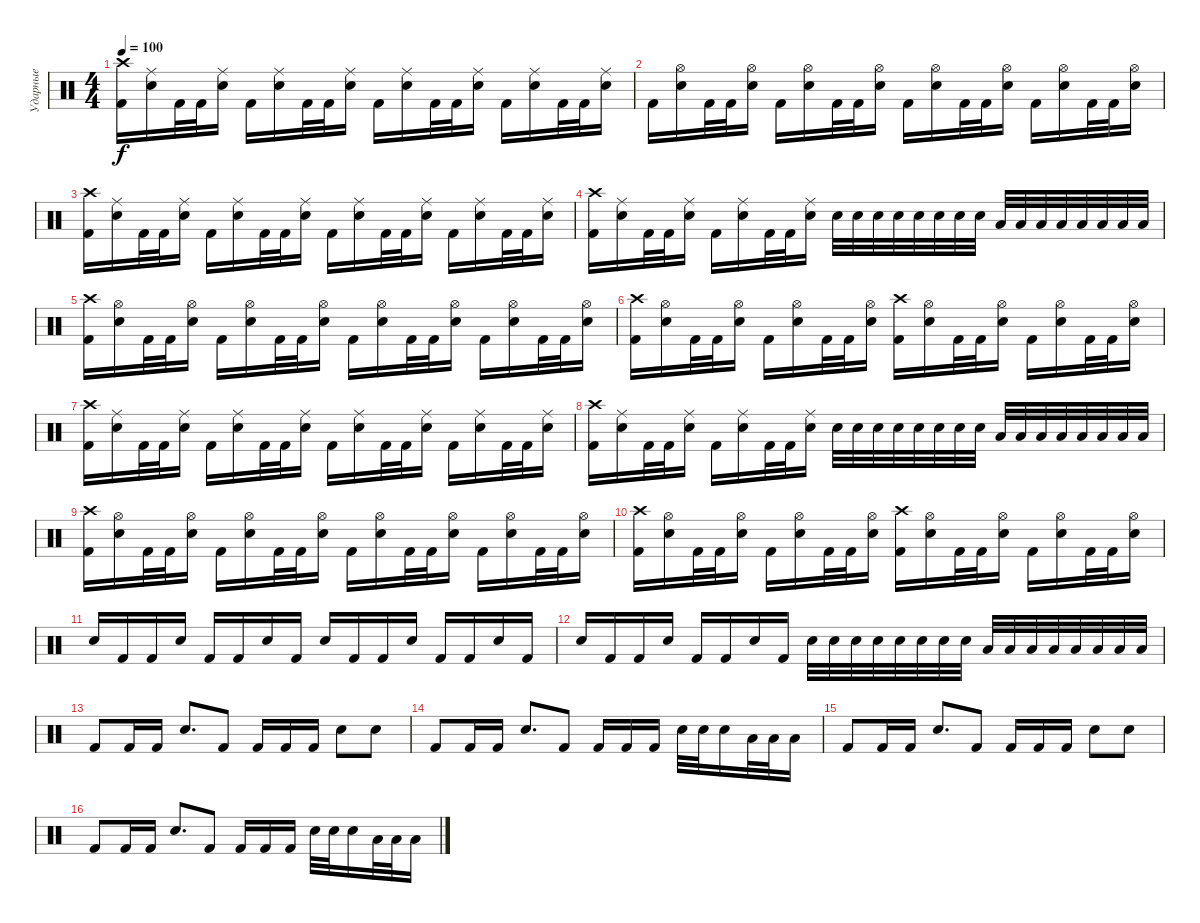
\track ("Ударные" "Ударные") {instrument percussion}
\staff {score}
\articulation defaults
\ts (4 4)
\tempo 100
\clef neutral
\ks c
("Kick (hit) 2" "Crash high (hit)").16{dy f} ("Electric Snare (hit)" "Ride (middle)").16 "Kick (hit) 2".32 "Kick (hit) 2".32 ("Electric Snare (hit)" "Ride (middle)").16 "Kick (hit) 2".16 ("Electric Snare (hit)" "Ride (middle)").16 "Kick (hit) 2".32 "Kick (hit) 2".32 ("Electric Snare (hit)" "Ride (middle)").16 "Kick (hit) 2".16 ("Electric Snare (hit)" "Ride (middle)").16 "Kick (hit) 2".32 "Kick (hit) 2".32 ("Electric Snare (hit)" "Ride (middle)").16 "Kick (hit) 2".16 ("Electric Snare (hit)" "Ride (middle)").16 "Kick (hit) 2".32 "Kick (hit) 2".32 ("Electric Snare (hit)" "Ride (middle)").16 |
"Kick (hit) 2".16 ("Electric Snare (hit)" "Hi-Hat (open)").16 "Kick (hit) 2".32 "Kick (hit) 2".32 ("Electric Snare (hit)" "Hi-Hat (open)").16 "Kick (hit) 2".16 ("Electric Snare (hit)" "Hi-Hat (open)").16 "Kick (hit) 2".32 "Kick (hit) 2".32 ("Electric Snare (hit)" "Hi-Hat (open)").16 "Kick (hit) 2".16 ("Electric Snare (hit)" "Hi-Hat (open)").16 "Kick (hit) 2".32 "Kick (hit) 2".32 ("Electric Snare (hit)" "Hi-Hat (open)").16 "Kick (hit) 2".16 ("Electric Snare (hit)" "Hi-Hat (open)").16 "Kick (hit) 2".32 "Kick (hit) 2".32 ("Electric Snare (hit)" "Hi-Hat (open)").16 |
("Kick (hit) 2" "Crash high (hit)").16 ("Electric Snare (hit)" "Ride (middle)").16 "Kick (hit) 2".32 "Kick (hit) 2".32 ("Electric Snare (hit)" "Ride (middle)").16 "Kick (hit) 2".16 ("Electric Snare (hit)" "Ride (middle)").16 "Kick (hit) 2".32 "Kick (hit) 2".32 ("Electric Snare (hit)" "Ride (middle)").16 "Kick (hit) 2".16 ("Electric Snare (hit)" "Ride (middle)").16 "Kick (hit) 2".32 "Kick (hit) 2".32 ("Electric Snare (hit)" "Ride (middle)").16 "Kick (hit) 2".16 ("Electric Snare (hit)" "Ride (middle)").16 "Kick (hit) 2".32 "Kick (hit) 2".32 ("Electric Snare (hit)" "Ride (middle)").16 |
("Kick (hit) 2" "Crash high (hit)").16 ("Electric Snare (hit)" "Ride (middle)").16 "Kick (hit) 2".32 "Kick (hit) 2".32 ("Electric Snare (hit)" "Ride (middle)").16 "Kick (hit) 2".16 ("Electric Snare (hit)" "Ride (middle)").16 "Kick (hit) 2".32 "Kick (hit) 2".32 ("Electric Snare (hit)" "Ride (middle)").16 "Electric Snare (hit)".32 "Electric Snare (hit)".32 "Electric Snare (hit)".32 "Electric Snare (hit)".32 "Electric Snare (hit)".32 "Electric Snare (hit)".32 "Electric Snare (hit)".32 "Electric Snare (hit)".32 "Low Tom (hit)".32 "Low Tom (hit)".32 "Low Tom (hit)".32 "Low Tom (hit)".32 "Low Tom (hit)".32 "Low Tom (hit)".32 "Low Tom (hit)".32 "Low Tom (hit)".32 |
("Kick (hit) 2" "Crash high (hit)").16 ("Electric Snare (hit)" "Hi-Hat (open)").16 "Kick (hit) 2".32 "Kick (hit) 2".32 ("Electric Snare (hit)" "Hi-Hat (open)").16 "Kick (hit) 2".16 ("Electric Snare (hit)" "Hi-Hat (open)").16 "Kick (hit) 2".32 "Kick (hit) 2".32 ("Electric Snare (hit)" "Hi-Hat (open)").16 "Kick (hit) 2".16 ("Electric Snare (hit)" "Hi-Hat (open)").16 "Kick (hit) 2".32 "Kick (hit) 2".32 ("Electric Snare (hit)" "Hi-Hat (open)").16 "Kick (hit) 2".16 ("Electric Snare (hit)" "Hi-Hat (open)").16 "Kick (hit) 2".32 "Kick (hit) 2".32 ("Electric Snare (hit)" "Hi-Hat (open)").16 |
("Kick (hit) 2" "Crash high (hit)").16 ("Electric Snare (hit)" "Hi-Hat (open)").16 "Kick (hit) 2".32 "Kick (hit) 2".32 ("Electric Snare (hit)" "Hi-Hat (open)").16 "Kick (hit) 2".16 ("Electric Snare (hit)" "Hi-Hat (open)").16 "Kick (hit) 2".32 "Kick (hit) 2".32 ("Electric Snare (hit)" "Hi-Hat (open)").16 ("Kick (hit) 2" "Crash high (hit)").16 ("Electric Snare (hit)" "Hi-Hat (open)").16 "Kick (hit) 2".32 "Kick (hit) 2".32 ("Electric Snare (hit)" "Hi-Hat (open)").16 "Kick (hit) 2".16 ("Electric Snare (hit)" "Hi-Hat (open)").16 "Kick (hit) 2".32 "Kick (hit) 2".32 ("Electric Snare (hit)" "Hi-Hat (open)").16 |
("Kick (hit) 2" "Crash high (hit)").16 ("Electric Snare (hit)" "Ride (middle)").16 "Kick (hit) 2".32 "Kick (hit) 2".32 ("Electric Snare (hit)" "Ride (middle)").16 "Kick (hit) 2".16 ("Electric Snare (hit)" "Ride (middle)").16 "Kick (hit) 2".32 "Kick (hit) 2".32 ("Electric Snare (hit)" "Ride (middle)").16 "Kick (hit) 2".16 ("Electric Snare (hit)" "Ride (middle)").16 "Kick (hit) 2".32 "Kick (hit) 2".32 ("Electric Snare (hit)" "Ride (middle)").16 "Kick (hit) 2".16 ("Electric Snare (hit)" "Ride (middle)").16 "Kick (hit) 2".32 "Kick (hit) 2".32 ("Electric Snare (hit)" "Ride (middle)").16 |
("Kick (hit) 2" "Crash high (hit)").16 ("Electric Snare (hit)" "Ride (middle)").16 "Kick (hit) 2".32 "Kick (hit) 2".32 ("Electric Snare (hit)" "Ride (middle)").16 "Kick (hit) 2".16 ("Electric Snare (hit)" "Ride (middle)").16 "Kick (hit) 2".32 "Kick (hit) 2".32 ("Electric Snare (hit)" "Ride (middle)").16 "Electric Snare (hit)".32 "Electric Snare (hit)".32 "Electric Snare (hit)".32 "Electric Snare (hit)".32 "Electric Snare (hit)".32 "Electric Snare (hit)".32 "Electric Snare (hit)".32 "Electric Snare (hit)".32 "Low Tom (hit)".32 "Low Tom (hit)".32 "Low Tom (hit)".32 "Low Tom (hit)".32 "Low Tom (hit)".32 "Low Tom (hit)".32 "Low Tom (hit)".32 "Low Tom (hit)".32 |
("Kick (hit) 2" "Crash high (hit)").16 ("Electric Snare (hit)" "Hi-Hat (open)").16 "Kick (hit) 2".32 "Kick (hit) 2".32 ("Electric Snare (hit)" "Hi-Hat (open)").16 "Kick (hit) 2".16 ("Electric Snare (hit)" "Hi-Hat (open)").16 "Kick (hit) 2".32 "Kick (hit) 2".32 ("Electric Snare (hit)" "Hi-Hat (open)").16 "Kick (hit) 2".16 ("Electric Snare (hit)" "Hi-Hat (open)").16 "Kick (hit) 2".32 "Kick (hit) 2".32 ("Electric Snare (hit)" "Hi-Hat (open)").16 "Kick (hit) 2".16 ("Electric Snare (hit)" "Hi-Hat (open)").16 "Kick (hit) 2".32 "Kick (hit) 2".32 ("Electric Snare (hit)" "Hi-Hat (open)").16 |
("Kick (hit) 2" "Crash high (hit)").16 ("Electric Snare (hit)" "Hi-Hat (open)").16 "Kick (hit) 2".32 "Kick (hit) 2".32 ("Electric Snare (hit)" "Hi-Hat (open)").16 "Kick (hit) 2".16 ("Electric Snare (hit)" "Hi-Hat (open)").16 "Kick (hit) 2".32 "Kick (hit) 2".32 ("Electric Snare (hit)" "Hi-Hat (open)").16 ("Kick (hit) 2" "Crash high (hit)").16 ("Electric Snare (hit)" "Hi-Hat (open)").16 "Kick (hit) 2".32 "Kick (hit) 2".32 ("Electric Snare (hit)" "Hi-Hat (open)").16 "Kick (hit) 2".16 ("Electric Snare (hit)" "Hi-Hat (open)").16 "Kick (hit) 2".32 "Kick (hit) 2".32 ("Electric Snare (hit)" "Hi-Hat (open)").16 |
"Electric Snare (hit)".16 "Kick (hit) 2".16 "Kick (hit) 2".16 "Electric Snare (hit)".16 "Kick (hit) 2".16 "Kick (hit) 2".16 "Electric Snare (hit)".16 "Kick (hit) 2".16 "Electric Snare (hit)".16 "Kick (hit) 2".16 "Kick (hit) 2".16 "Electric Snare (hit)".16 "Kick (hit) 2".16 "Kick (hit) 2".16 "Electric Snare (hit)".16 "Kick (hit) 2".16 |
"Electric Snare (hit)".16 "Kick (hit) 2".16 "Kick (hit) 2".16 "Electric Snare (hit)".16 "Kick (hit) 2".16 "Kick (hit) 2".16 "Electric Snare (hit)".16 "Kick (hit) 2".16 "Electric Snare (hit)".32 "Electric Snare (hit)".32 "Electric Snare (hit)".32 "Electric Snare (hit)".32 "Electric Snare (hit)".32 "Electric Snare (hit)".32 "Electric Snare (hit)".32 "Electric Snare (hit)".32 "Low Tom (hit)".32 "Low Tom (hit)".32 "Low Tom (hit)".32 "Low Tom (hit)".32 "Low Tom (hit)".32 "Low Tom (hit)".32 "Low Tom (hit)".32 "Low Tom (hit)".32 |
"Kick (hit) 2".8 "Kick (hit) 2".16 "Kick (hit) 2".16 "Electric Snare (hit)".8{d} "Kick (hit) 2".8 "Kick (hit) 2".16 "Kick (hit) 2".16 "Kick (hit) 2".16 "Electric Snare (hit)".8 "Electric Snare (hit)".8 |
"Kick (hit) 2".8 "Kick (hit) 2".16 "Kick (hit) 2".16 "Electric Snare (hit)".8{d} "Kick (hit) 2".8 "Kick (hit) 2".16 "Kick (hit) 2".16 "Kick (hit) 2".16 "Electric Snare (hit)".32 "Electric Snare (hit)".32 "Electric Snare (hit)".16 "Low Tom (hit)".32 "Low Tom (hit)".32 "Low Tom (hit)".16 |
"Kick (hit) 2".8 "Kick (hit) 2".16 "Kick (hit) 2".16 "Electric Snare (hit)".8{d} "Kick (hit) 2".8 "Kick (hit) 2".16 "Kick (hit) 2".16 "Kick (hit) 2".16 "Electric Snare (hit)".8 "Electric Snare (hit)".8 |
"Kick (hit) 2".8 "Kick (hit) 2".16 "Kick (hit) 2".16 "Electric Snare (hit)".8{d} "Kick (hit) 2".8 "Kick (hit) 2".16 "Kick (hit) 2".16 "Kick (hit) 2".16 "Electric Snare (hit)".32 "Electric Snare (hit)".32 "Electric Snare (hit)".16 "Low Tom (hit)".32 "Low Tom (hit)".32 "Low Tom (hit)".16
